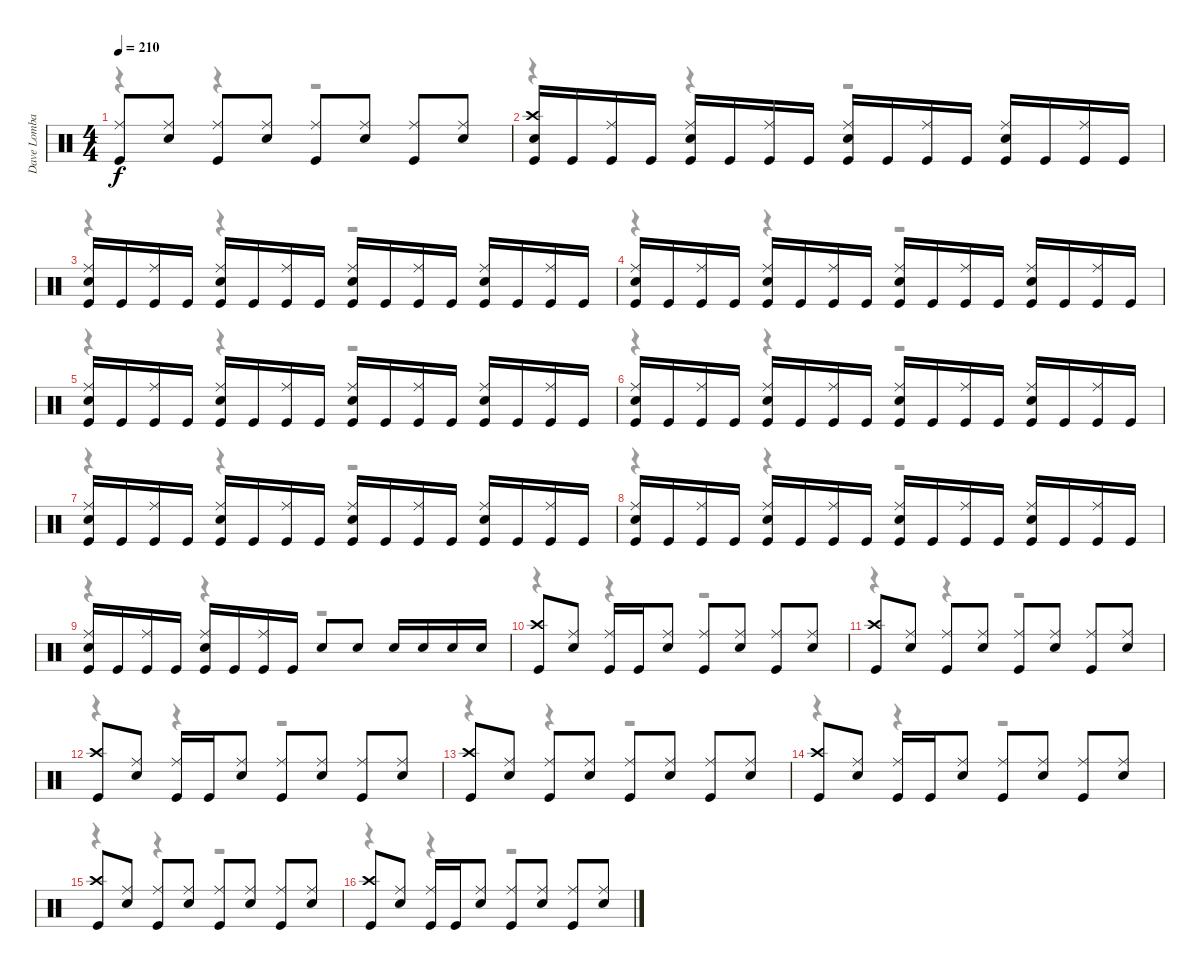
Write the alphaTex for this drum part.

\track ("Dave Lombardo" "Dave Lomba") {instrument percussion}
\staff {score}
\articulation defaults
\voice
\ts (4 4)
\tempo 210
\clef neutral
\ks c
("Ride (middle)" "Kick (hit)").8{dy f} ("Ride (middle)" "Snare (hit) 2").8 ("Ride (middle)" "Kick (hit)").8 ("Ride (middle)" "Snare (hit) 2").8 ("Ride (middle)" "Kick (hit)").8 ("Ride (middle)" "Snare (hit) 2").8 ("Ride (middle)" "Kick (hit)").8 ("Ride (middle)" "Snare (hit) 2").8 |
("Crash high (hit)" "Snare (hit) 2" "Kick (hit)").16 "Kick (hit)".16 ("Ride (middle)" "Kick (hit)").16 "Kick (hit)".16 ("Ride (middle)" "Snare (hit) 2" "Kick (hit)").16 "Kick (hit)".16 ("Ride (middle)" "Kick (hit)").16 "Kick (hit)".16 ("Ride (middle)" "Snare (hit) 2" "Kick (hit)").16 "Kick (hit)".16 ("Ride (middle)" "Kick (hit)").16 "Kick (hit)".16 ("Ride (middle)" "Snare (hit) 2" "Kick (hit)").16 "Kick (hit)".16 ("Ride (middle)" "Kick (hit)").16 "Kick (hit)".16 |
("Ride (middle)" "Snare (hit) 2" "Kick (hit)").16 "Kick (hit)".16 ("Ride (middle)" "Kick (hit)").16 "Kick (hit)".16 ("Ride (middle)" "Snare (hit) 2" "Kick (hit)").16 "Kick (hit)".16 ("Ride (middle)" "Kick (hit)").16 "Kick (hit)".16 ("Ride (middle)" "Snare (hit) 2" "Kick (hit)").16 "Kick (hit)".16 ("Ride (middle)" "Kick (hit)").16 "Kick (hit)".16 ("Ride (middle)" "Snare (hit) 2" "Kick (hit)").16 "Kick (hit)".16 ("Ride (middle)" "Kick (hit)").16 "Kick (hit)".16 |
("Ride (middle)" "Snare (hit) 2" "Kick (hit)").16 "Kick (hit)".16 ("Ride (middle)" "Kick (hit)").16 "Kick (hit)".16 ("Ride (middle)" "Snare (hit) 2" "Kick (hit)").16 "Kick (hit)".16 ("Ride (middle)" "Kick (hit)").16 "Kick (hit)".16 ("Ride (middle)" "Snare (hit) 2" "Kick (hit)").16 "Kick (hit)".16 ("Ride (middle)" "Kick (hit)").16 "Kick (hit)".16 ("Ride (middle)" "Snare (hit) 2" "Kick (hit)").16 "Kick (hit)".16 ("Ride (middle)" "Kick (hit)").16 "Kick (hit)".16 |
("Ride (middle)" "Snare (hit) 2" "Kick (hit)").16 "Kick (hit)".16 ("Ride (middle)" "Kick (hit)").16 "Kick (hit)".16 ("Ride (middle)" "Snare (hit) 2" "Kick (hit)").16 "Kick (hit)".16 ("Ride (middle)" "Kick (hit)").16 "Kick (hit)".16 ("Ride (middle)" "Snare (hit) 2" "Kick (hit)").16 "Kick (hit)".16 ("Ride (middle)" "Kick (hit)").16 "Kick (hit)".16 ("Ride (middle)" "Snare (hit) 2" "Kick (hit)").16 "Kick (hit)".16 ("Ride (middle)" "Kick (hit)").16 "Kick (hit)".16 |
("Ride (middle)" "Snare (hit) 2" "Kick (hit)").16 "Kick (hit)".16 ("Ride (middle)" "Kick (hit)").16 "Kick (hit)".16 ("Ride (middle)" "Snare (hit) 2" "Kick (hit)").16 "Kick (hit)".16 ("Ride (middle)" "Kick (hit)").16 "Kick (hit)".16 ("Ride (middle)" "Snare (hit) 2" "Kick (hit)").16 "Kick (hit)".16 ("Ride (middle)" "Kick (hit)").16 "Kick (hit)".16 ("Ride (middle)" "Snare (hit) 2" "Kick (hit)").16 "Kick (hit)".16 ("Ride (middle)" "Kick (hit)").16 "Kick (hit)".16 |
("Ride (middle)" "Snare (hit) 2" "Kick (hit)").16 "Kick (hit)".16 ("Ride (middle)" "Kick (hit)").16 "Kick (hit)".16 ("Ride (middle)" "Snare (hit) 2" "Kick (hit)").16 "Kick (hit)".16 ("Ride (middle)" "Kick (hit)").16 "Kick (hit)".16 ("Ride (middle)" "Snare (hit) 2" "Kick (hit)").16 "Kick (hit)".16 ("Ride (middle)" "Kick (hit)").16 "Kick (hit)".16 ("Ride (middle)" "Snare (hit) 2" "Kick (hit)").16 "Kick (hit)".16 ("Ride (middle)" "Kick (hit)").16 "Kick (hit)".16 |
("Ride (middle)" "Snare (hit) 2" "Kick (hit)").16 "Kick (hit)".16 ("Ride (middle)" "Kick (hit)").16 "Kick (hit)".16 ("Ride (middle)" "Snare (hit) 2" "Kick (hit)").16 "Kick (hit)".16 ("Ride (middle)" "Kick (hit)").16 "Kick (hit)".16 ("Ride (middle)" "Snare (hit) 2" "Kick (hit)").16 "Kick (hit)".16 ("Ride (middle)" "Kick (hit)").16 "Kick (hit)".16 ("Ride (middle)" "Snare (hit) 2" "Kick (hit)").16 "Kick (hit)".16 ("Ride (middle)" "Kick (hit)").16 "Kick (hit)".16 |
("Ride (middle)" "Snare (hit) 2" "Kick (hit)").16 "Kick (hit)".16 ("Ride (middle)" "Kick (hit)").16 "Kick (hit)".16 ("Ride (middle)" "Snare (hit) 2" "Kick (hit)").16 "Kick (hit)".16 ("Ride (middle)" "Kick (hit)").16 "Kick (hit)".16 "Snare (hit) 2".8 "Snare (hit) 2".8 "Snare (hit) 2".16 "Snare (hit) 2".16 "Snare (hit) 2".16 "Snare (hit) 2".16 |
("Crash high (hit)" "Kick (hit)").8 ("Ride (middle)" "Snare (hit) 2").8 ("Ride (middle)" "Kick (hit)").16 "Kick (hit)".16 ("Ride (middle)" "Snare (hit) 2").8 ("Ride (middle)" "Kick (hit)").8 ("Ride (middle)" "Snare (hit) 2").8 ("Ride (middle)" "Kick (hit)").8 ("Ride (middle)" "Snare (hit) 2").8 |
("Crash high (hit)" "Kick (hit)").8 ("Ride (middle)" "Snare (hit) 2").8 ("Ride (middle)" "Kick (hit)").8 ("Ride (middle)" "Snare (hit) 2").8 ("Ride (middle)" "Kick (hit)").8 ("Ride (middle)" "Snare (hit) 2").8 ("Ride (middle)" "Kick (hit)").8 ("Ride (middle)" "Snare (hit) 2").8 |
("Crash high (hit)" "Kick (hit)").8 ("Ride (middle)" "Snare (hit) 2").8 ("Ride (middle)" "Kick (hit)").16 "Kick (hit)".16 ("Ride (middle)" "Snare (hit) 2").8 ("Ride (middle)" "Kick (hit)").8 ("Ride (middle)" "Snare (hit) 2").8 ("Ride (middle)" "Kick (hit)").8 ("Ride (middle)" "Snare (hit) 2").8 |
("Crash high (hit)" "Kick (hit)").8 ("Ride (middle)" "Snare (hit) 2").8 ("Ride (middle)" "Kick (hit)").8 ("Ride (middle)" "Snare (hit) 2").8 ("Ride (middle)" "Kick (hit)").8 ("Ride (middle)" "Snare (hit) 2").8 ("Ride (middle)" "Kick (hit)").8 ("Ride (middle)" "Snare (hit) 2").8 |
("Crash high (hit)" "Kick (hit)").8 ("Ride (middle)" "Snare (hit) 2").8 ("Ride (middle)" "Kick (hit)").16 "Kick (hit)".16 ("Ride (middle)" "Snare (hit) 2").8 ("Ride (middle)" "Kick (hit)").8 ("Ride (middle)" "Snare (hit) 2").8 ("Ride (middle)" "Kick (hit)").8 ("Ride (middle)" "Snare (hit) 2").8 |
("Crash high (hit)" "Kick (hit)").8 ("Ride (middle)" "Snare (hit) 2").8 ("Ride (middle)" "Kick (hit)").8 ("Ride (middle)" "Snare (hit) 2").8 ("Ride (middle)" "Kick (hit)").8 ("Ride (middle)" "Snare (hit) 2").8 ("Ride (middle)" "Kick (hit)").8 ("Ride (middle)" "Snare (hit) 2").8 |
("Crash high (hit)" "Kick (hit)").8 ("Ride (middle)" "Snare (hit) 2").8 ("Ride (middle)" "Kick (hit)").16 "Kick (hit)".16 ("Ride (middle)" "Snare (hit) 2").8 ("Ride (middle)" "Kick (hit)").8 ("Ride (middle)" "Snare (hit) 2").8 ("Ride (middle)" "Kick (hit)").8 ("Ride (middle)" "Snare (hit) 2").8
\voice
\clef neutral
\ottava regular
\simile none
\ks c
r.4{dy f} r.4 r.2 |
r.4 r.4 r.2 |
r.4 r.4 r.2 |
r.4 r.4 r.2 |
r.4 r.4 r.2 |
r.4 r.4 r.2 |
r.4 r.4 r.2 |
r.4 r.4 r.2 |
r.4 r.4 r.2 |
r.4 r.4 r.2 |
r.4 r.4 r.2 |
r.4 r.4 r.2 |
r.4 r.4 r.2 |
r.4 r.4 r.2 |
r.4 r.4 r.2 |
r.4 r.4 r.2
